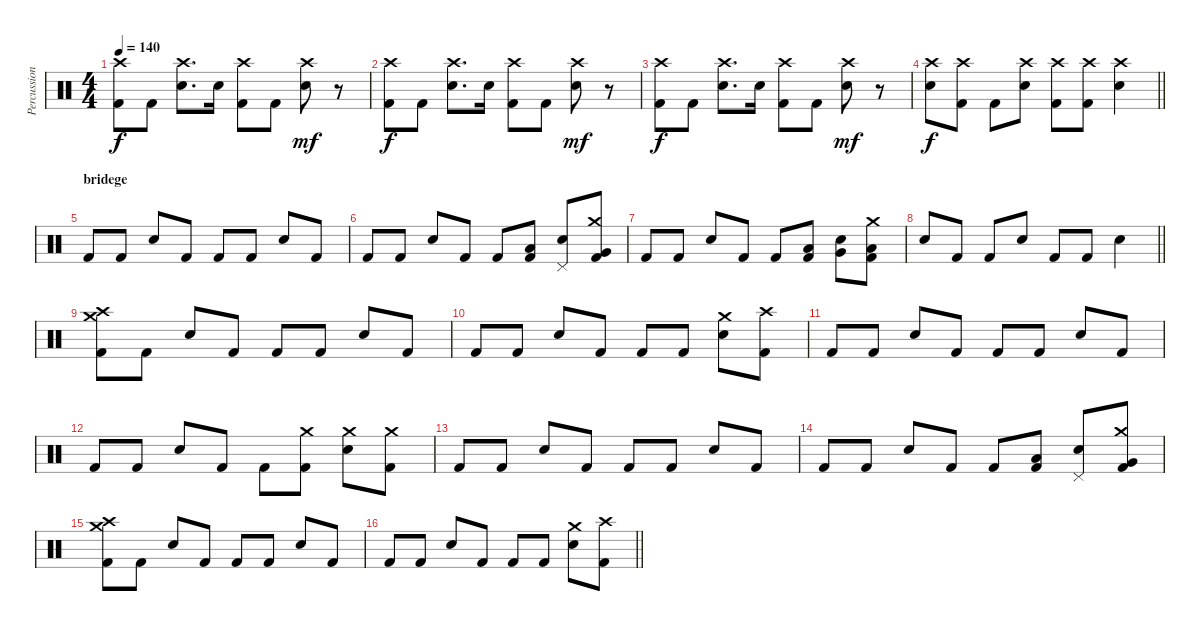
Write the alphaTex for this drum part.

\track ("Percussion" "Percussion") {instrument percussion}
\staff {score}
\articulation defaults
\ts (4 4)
\tempo 140
\clef neutral
\ks c
("Kick (hit) 2" "Crash high (hit)").8{dy f} "Kick (hit) 2".8 ("Electric Snare (hit)" "Crash high (hit)").8{d} "Electric Snare (hit)".16 ("Kick (hit) 2" "Crash high (hit)").8 "Kick (hit) 2".8 ("Electric Snare (hit)" "Crash high (hit)").8{dy mf} r.8 |
("Kick (hit) 2" "Crash high (hit)").8{dy f} "Kick (hit) 2".8 ("Electric Snare (hit)" "Crash high (hit)").8{d} "Electric Snare (hit)".16 ("Kick (hit) 2" "Crash high (hit)").8 "Kick (hit) 2".8 ("Electric Snare (hit)" "Crash high (hit)").8{dy mf} r.8 |
("Kick (hit) 2" "Crash high (hit)").8{dy f} "Kick (hit) 2".8 ("Electric Snare (hit)" "Crash high (hit)").8{d} "Electric Snare (hit)".16 ("Kick (hit) 2" "Crash high (hit)").8 "Kick (hit) 2".8 ("Electric Snare (hit)" "Crash high (hit)").8{dy mf} r.8 |
\barLineRight lightlight
("Electric Snare (hit)" "Crash high (hit)").8{dy f} ("Kick (hit) 2" "Crash high (hit)").8 "Kick (hit) 2".8 ("Electric Snare (hit)" "Crash high (hit)").8 ("Kick (hit) 2" "Crash high (hit)").8 ("Kick (hit) 2" "Crash high (hit)").8 ("Electric Snare (hit)" "Crash high (hit)").4 |
\section ("" "bridege")
"Kick (hit) 2".8 "Kick (hit) 2".8 "Electric Snare (hit)".8 "Kick (hit) 2".8 "Kick (hit) 2".8 "Kick (hit) 2".8 "Electric Snare (hit)".8 "Kick (hit) 2".8 |
"Kick (hit) 2".8 "Kick (hit) 2".8 "Electric Snare (hit)".8 "Kick (hit) 2".8 "Kick (hit) 2".8 ("Kick (hit) 2" "Low Tom (hit)").8 ("Electric Snare (hit)" "Pedal Hi-Hat (hit)").8 ("Kick (hit) 2" "Crash medium (hit)" "Very Low Tom (hit)").8 |
"Kick (hit) 2".8 "Kick (hit) 2".8 "Electric Snare (hit)".8 "Kick (hit) 2".8 "Kick (hit) 2".8 ("Kick (hit) 2" "Low Tom (hit)").8 ("Electric Snare (hit)" "Very Low Tom (hit)").8 ("Kick (hit) 2" "Crash medium (hit)" "Low Tom (hit)").8 |
\barLineRight lightlight "Electric Snare (hit)".8 "Kick (hit) 2".8 "Kick (hit) 2".8 "Electric Snare (hit)".8 "Kick (hit) 2".8 "Kick (hit) 2".8 "Electric Snare (hit)".4
|
("Kick (hit) 2" "Crash medium (hit)" "Crash high (hit)").8 "Kick (hit) 2".8 "Electric Snare (hit)".8 "Kick (hit) 2".8 "Kick (hit) 2".8 "Kick (hit) 2".8 "Electric Snare (hit)".8 "Kick (hit) 2".8 |
"Kick (hit) 2".8 "Kick (hit) 2".8 "Electric Snare (hit)".8 "Kick (hit) 2".8 "Kick (hit) 2".8 "Kick (hit) 2".8 ("Electric Snare (hit)" "Crash medium (hit)").8 ("Kick (hit) 2" "Crash high (hit)").8 |
"Kick (hit) 2".8 "Kick (hit) 2".8 "Electric Snare (hit)".8 "Kick (hit) 2".8 "Kick (hit) 2".8 "Kick (hit) 2".8 "Electric Snare (hit)".8 "Kick (hit) 2".8 |
"Kick (hit) 2".8 "Kick (hit) 2".8 "Electric Snare (hit)".8 "Kick (hit) 2".8 "Kick (hit) 2".8 ("Kick (hit) 2" "Crash medium (hit)").8 ("Electric Snare (hit)" "Crash medium (hit)").8 ("Kick (hit) 2" "Crash medium (hit)").8 |
"Kick (hit) 2".8 "Kick (hit) 2".8 "Electric Snare (hit)".8 "Kick (hit) 2".8 "Kick (hit) 2".8 "Kick (hit) 2".8 "Electric Snare (hit)".8 "Kick (hit) 2".8 |
"Kick (hit) 2".8 "Kick (hit) 2".8 "Electric Snare (hit)".8 "Kick (hit) 2".8 "Kick (hit) 2".8 ("Kick (hit) 2" "Low Tom (hit)").8 ("Electric Snare (hit)" "Pedal Hi-Hat (hit)").8 ("Kick (hit) 2" "Crash medium (hit)" "Very Low Tom (hit)").8 |
("Kick (hit) 2" "Crash medium (hit)" "Crash high (hit)").8 "Kick (hit) 2".8 "Electric Snare (hit)".8 "Kick (hit) 2".8 "Kick (hit) 2".8 "Kick (hit) 2".8 "Electric Snare (hit)".8 "Kick (hit) 2".8 |
\barLineRight lightlight "Kick (hit) 2".8 "Kick (hit) 2".8 "Electric Snare (hit)".8 "Kick (hit) 2".8 "Kick (hit) 2".8 "Kick (hit) 2".8
("Electric Snare (hit)" "Crash medium (hit)").8 ("Kick (hit) 2" "Crash high (hit)").8
